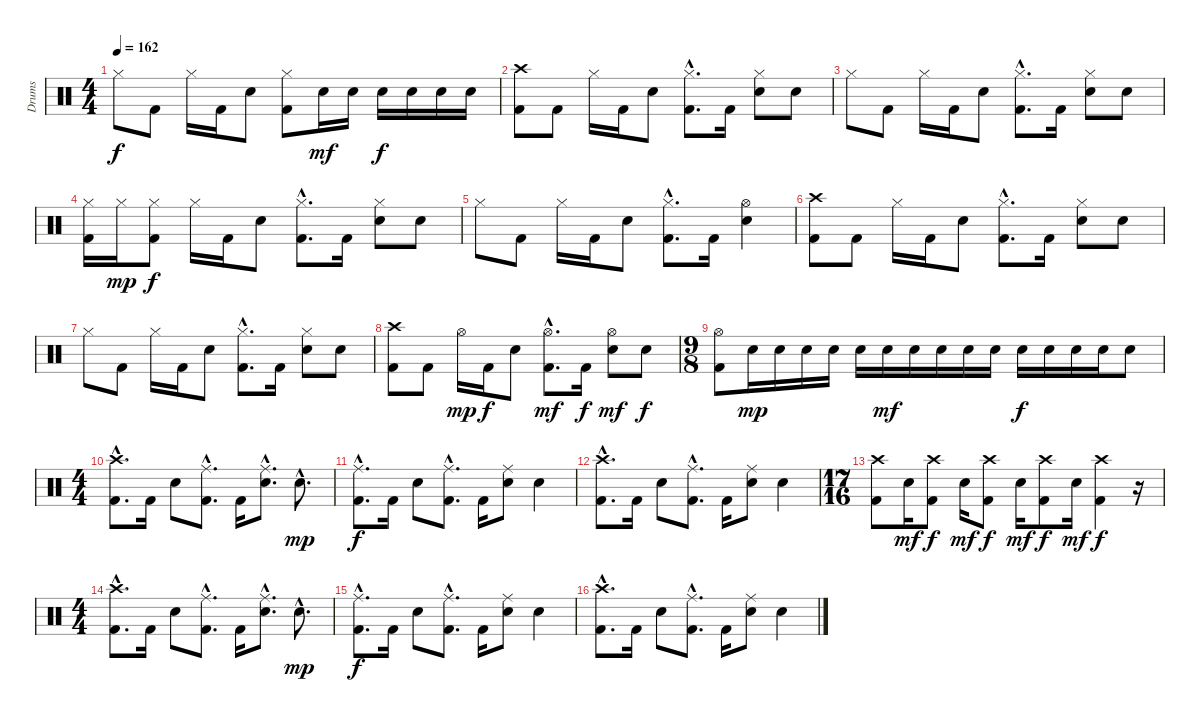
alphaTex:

\track ("Drums" "Drums") {instrument percussion}
\staff {score}
\articulation defaults
\ts (4 4)
\tempo 162
\clef neutral
\ks c "Hi-Hat (closed)".8{dy f} "Kick (hit) 2".8 "Hi-Hat (closed)".16 "Kick (hit) 2".16 "Electric Snare (hit)".8
("Hi-Hat (closed)" "Kick (hit) 2").8 "Electric Snare (hit)".16{dy mf} "Electric Snare (hit)".16 "Electric Snare (hit)".16{dy f} "Electric Snare (hit)".16 "Electric Snare (hit)".16 "Electric Snare (hit)".16 |
("Crash high (hit)" "Kick (hit) 2").8 "Kick (hit) 2".8 "Hi-Hat (closed)".16 "Kick (hit) 2".16 "Electric Snare (hit)".8 ("Hi-Hat (closed)"{hac} "Kick (hit) 2"{hac}).8{d} "Kick (hit) 2".16 ("Hi-Hat (closed)" "Electric Snare (hit)").8 "Electric Snare (hit)".8 |
"Hi-Hat (closed)".8 "Kick (hit) 2".8 "Hi-Hat (closed)".16 "Kick (hit) 2".16 "Electric Snare (hit)".8 ("Hi-Hat (closed)"{hac} "Kick (hit) 2"{hac}).8{d} "Kick (hit) 2".16 ("Hi-Hat (closed)" "Electric Snare (hit)").8 "Electric Snare (hit)".8 |
("Hi-Hat (closed)" "Kick (hit) 2").16 "Hi-Hat (closed)".16{dy mp} ("Hi-Hat (closed)" "Kick (hit) 2").8{dy f} "Hi-Hat (closed)".16 "Kick (hit) 2".16 "Electric Snare (hit)".8 ("Hi-Hat (closed)"{hac} "Kick (hit) 2"{hac}).8{d} "Kick (hit) 2".16 ("Hi-Hat (closed)" "Electric Snare (hit)").8 "Electric Snare (hit)".8 |
"Hi-Hat (closed)".8 "Kick (hit) 2".8 "Hi-Hat (closed)".16 "Kick (hit) 2".16 "Electric Snare (hit)".8 ("Hi-Hat (closed)"{hac} "Kick (hit) 2"{hac}).8{d} "Kick (hit) 2".16 ("Hi-Hat (open)" "Electric Snare (hit)").4 |
("Crash high (hit)" "Kick (hit) 2").8 "Kick (hit) 2".8 "Hi-Hat (closed)".16 "Kick (hit) 2".16 "Electric Snare (hit)".8 ("Hi-Hat (closed)"{hac} "Kick (hit) 2"{hac}).8{d} "Kick (hit) 2".16 ("Hi-Hat (closed)" "Electric Snare (hit)").8 "Electric Snare (hit)".8 |
"Hi-Hat (closed)".8 "Kick (hit) 2".8 "Hi-Hat (closed)".16 "Kick (hit) 2".16 "Electric Snare (hit)".8 ("Hi-Hat (closed)"{hac} "Kick (hit) 2"{hac}).8{d} "Kick (hit) 2".16 ("Hi-Hat (closed)" "Electric Snare (hit)").8 "Electric Snare (hit)".8 |
("Crash high (hit)" "Kick (hit) 2").8 "Kick (hit) 2".8 "Hi-Hat (open)".16{dy mp} "Kick (hit) 2".16{dy f} "Electric Snare (hit)".8 ("Hi-Hat (open)"{hac} "Kick (hit) 2"{hac}).8{d dy mf} "Kick (hit) 2".16{dy f} ("Hi-Hat (open)" "Electric Snare (hit)").8{dy mf} "Electric Snare (hit)".8{dy f} |
\ts (9 8)
("Hi-Hat (open)" "Kick (hit) 2").8 "Electric Snare (hit)".16{dy mp} "Electric Snare (hit)".16 "Electric Snare (hit)".16 "Electric Snare (hit)".16 "Electric Snare (hit)".16 "Electric Snare (hit)".16{dy mf} "Electric Snare (hit)".16 "Electric Snare (hit)".16 "Electric Snare (hit)".16 "Electric Snare (hit)".16 "Electric Snare (hit)".16{dy f} "Electric Snare (hit)".16 "Electric Snare (hit)".16 "Electric Snare (hit)".16 "Electric Snare (hit)".8 |
\ts (4 4)
("Crash high (hit)"{hac} "Kick (hit) 2"{hac}).8{d} "Kick (hit) 2".16 "Electric Snare (hit)".8 ("Ride (middle)"{hac} "Kick (hit) 2"{hac}).8{d} "Kick (hit) 2".16 ("Ride (middle)"{hac} "Electric Snare (hit)"{hac}).8{d} "Electric Snare (hit)"{hac}.8{d dy mp} |
("Ride (middle)"{hac} "Kick (hit) 2"{hac}).8{d dy f} "Kick (hit) 2".16 "Electric Snare (hit)".8 ("Ride (middle)"{hac} "Kick (hit) 2"{hac}).8{d} "Kick (hit) 2".16 ("Ride (middle)" "Electric Snare (hit)").8 "Electric Snare (hit)".4 |
("Crash high (hit)"{hac} "Kick (hit) 2"{hac}).8{d} "Kick (hit) 2".16 "Electric Snare (hit)".8 ("Ride (middle)"{hac} "Kick (hit) 2"{hac}).8{d} "Kick (hit) 2".16 ("Ride (middle)" "Electric Snare (hit)").8 "Electric Snare (hit)".4 |
\ts (17 16)
("Crash high (hit)" "Kick (hit) 2").8 "Electric Snare (hit)".16{dy mf} ("Crash high (hit)" "Kick (hit) 2").8{dy f} "Electric Snare (hit)".16{dy mf} ("Crash high (hit)" "Kick (hit) 2").8{dy f} "Electric Snare (hit)".16{dy mf} ("Crash high (hit)" "Kick (hit) 2").8{dy f} "Electric Snare (hit)".16{dy mf} ("Crash high (hit)" "Kick (hit) 2").4{dy f} r.16 |
\ts (4 4)
("Crash high (hit)"{hac} "Kick (hit) 2"{hac}).8{d} "Kick (hit) 2".16 "Electric Snare (hit)".8 ("Ride (middle)"{hac} "Kick (hit) 2"{hac}).8{d} "Kick (hit) 2".16 ("Ride (middle)"{hac} "Electric Snare (hit)"{hac}).8{d} "Electric Snare (hit)"{hac}.8{d dy mp} |
("Ride (middle)"{hac} "Kick (hit) 2"{hac}).8{d dy f} "Kick (hit) 2".16 "Electric Snare (hit)".8 ("Ride (middle)"{hac} "Kick (hit) 2"{hac}).8{d} "Kick (hit) 2".16 ("Ride (middle)" "Electric Snare (hit)").8 "Electric Snare (hit)".4 |
("Crash high (hit)"{hac} "Kick (hit) 2"{hac}).8{d} "Kick (hit) 2".16 "Electric Snare (hit)".8 ("Ride (middle)"{hac} "Kick (hit) 2"{hac}).8{d} "Kick (hit) 2".16 ("Ride (middle)" "Electric Snare (hit)").8 "Electric Snare (hit)".4
